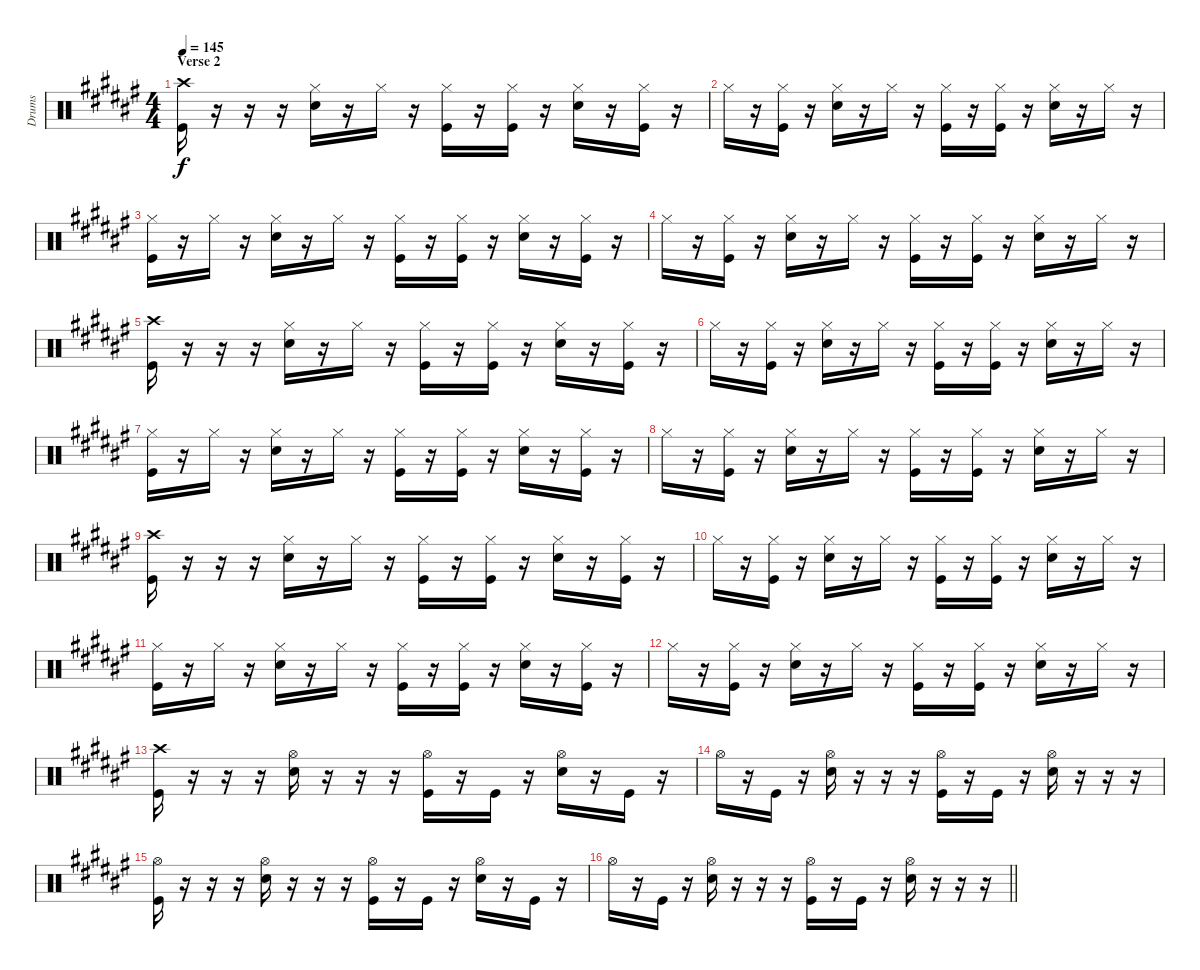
\track ("Drums" "Drums") {instrument percussion}
\staff {score}
\articulation defaults
\ts (4 4)
\section ("" "Verse 2")
\tempo 145
\clef neutral
\ks f#
("Kick (hit)" "Crash high (hit)").16{dy f} r.16 r.16 r.16 ("Hi-Hat (closed)" "Snare (hit) 2").16 r.16 "Hi-Hat (closed)".16 r.16 ("Hi-Hat (closed)" "Kick (hit)").16 r.16 ("Hi-Hat (closed)" "Kick (hit)").16 r.16 ("Hi-Hat (closed)" "Snare (hit) 2").16 r.16 ("Hi-Hat (closed)" "Kick (hit)").16 r.16 |
"Hi-Hat (closed)".16 r.16 ("Hi-Hat (closed)" "Kick (hit)").16 r.16 ("Hi-Hat (closed)" "Snare (hit) 2").16 r.16 "Hi-Hat (closed)".16 r.16 ("Hi-Hat (closed)" "Kick (hit)").16 r.16 ("Hi-Hat (closed)" "Kick (hit)").16 r.16 ("Hi-Hat (closed)" "Snare (hit) 2").16 r.16 "Hi-Hat (closed)".16 r.16 |
("Hi-Hat (closed)" "Kick (hit)").16 r.16 "Hi-Hat (closed)".16 r.16 ("Hi-Hat (closed)" "Snare (hit) 2").16 r.16 "Hi-Hat (closed)".16 r.16 ("Hi-Hat (closed)" "Kick (hit)").16 r.16 ("Hi-Hat (closed)" "Kick (hit)").16 r.16 ("Hi-Hat (closed)" "Snare (hit) 2").16 r.16 ("Hi-Hat (closed)" "Kick (hit)").16 r.16 |
"Hi-Hat (closed)".16 r.16 ("Hi-Hat (closed)" "Kick (hit)").16 r.16 ("Hi-Hat (closed)" "Snare (hit) 2").16 r.16 "Hi-Hat (closed)".16 r.16 ("Hi-Hat (closed)" "Kick (hit)").16 r.16 ("Hi-Hat (closed)" "Kick (hit)").16 r.16 ("Hi-Hat (closed)" "Snare (hit) 2").16 r.16 "Hi-Hat (closed)".16 r.16 |
("Kick (hit)" "Crash high (hit)").16 r.16 r.16 r.16 ("Hi-Hat (closed)" "Snare (hit) 2").16 r.16 "Hi-Hat (closed)".16 r.16 ("Hi-Hat (closed)" "Kick (hit)").16 r.16 ("Hi-Hat (closed)" "Kick (hit)").16 r.16 ("Hi-Hat (closed)" "Snare (hit) 2").16 r.16 ("Hi-Hat (closed)" "Kick (hit)").16 r.16 |
"Hi-Hat (closed)".16 r.16 ("Hi-Hat (closed)" "Kick (hit)").16 r.16 ("Hi-Hat (closed)" "Snare (hit) 2").16 r.16 "Hi-Hat (closed)".16 r.16 ("Hi-Hat (closed)" "Kick (hit)").16 r.16 ("Hi-Hat (closed)" "Kick (hit)").16 r.16 ("Hi-Hat (closed)" "Snare (hit) 2").16 r.16 "Hi-Hat (closed)".16 r.16 |
("Hi-Hat (closed)" "Kick (hit)").16 r.16 "Hi-Hat (closed)".16 r.16 ("Hi-Hat (closed)" "Snare (hit) 2").16 r.16 "Hi-Hat (closed)".16 r.16 ("Hi-Hat (closed)" "Kick (hit)").16 r.16 ("Hi-Hat (closed)" "Kick (hit)").16 r.16 ("Hi-Hat (closed)" "Snare (hit) 2").16 r.16 ("Hi-Hat (closed)" "Kick (hit)").16 r.16 |
"Hi-Hat (closed)".16 r.16 ("Hi-Hat (closed)" "Kick (hit)").16 r.16 ("Hi-Hat (closed)" "Snare (hit) 2").16 r.16 "Hi-Hat (closed)".16 r.16 ("Hi-Hat (closed)" "Kick (hit)").16 r.16 ("Hi-Hat (closed)" "Kick (hit)").16 r.16 ("Hi-Hat (closed)" "Snare (hit) 2").16 r.16 "Hi-Hat (closed)".16 r.16 |
("Kick (hit)" "Crash high (hit)").16 r.16 r.16 r.16 ("Hi-Hat (closed)" "Snare (hit) 2").16 r.16 "Hi-Hat (closed)".16 r.16 ("Hi-Hat (closed)" "Kick (hit)").16 r.16 ("Hi-Hat (closed)" "Kick (hit)").16 r.16 ("Hi-Hat (closed)" "Snare (hit) 2").16 r.16 ("Hi-Hat (closed)" "Kick (hit)").16 r.16 |
"Hi-Hat (closed)".16 r.16 ("Hi-Hat (closed)" "Kick (hit)").16 r.16 ("Hi-Hat (closed)" "Snare (hit) 2").16 r.16 "Hi-Hat (closed)".16 r.16 ("Hi-Hat (closed)" "Kick (hit)").16 r.16 ("Hi-Hat (closed)" "Kick (hit)").16 r.16 ("Hi-Hat (closed)" "Snare (hit) 2").16 r.16 "Hi-Hat (closed)".16 r.16 |
("Hi-Hat (closed)" "Kick (hit)").16 r.16 "Hi-Hat (closed)".16 r.16 ("Hi-Hat (closed)" "Snare (hit) 2").16 r.16 "Hi-Hat (closed)".16 r.16 ("Hi-Hat (closed)" "Kick (hit)").16 r.16 ("Hi-Hat (closed)" "Kick (hit)").16 r.16 ("Hi-Hat (closed)" "Snare (hit) 2").16 r.16 ("Hi-Hat (closed)" "Kick (hit)").16 r.16 |
"Hi-Hat (closed)".16 r.16 ("Hi-Hat (closed)" "Kick (hit)").16 r.16 ("Hi-Hat (closed)" "Snare (hit) 2").16 r.16 "Hi-Hat (closed)".16 r.16 ("Hi-Hat (closed)" "Kick (hit)").16 r.16 ("Hi-Hat (closed)" "Kick (hit)").16 r.16 ("Hi-Hat (closed)" "Snare (hit) 2").16 r.16 "Hi-Hat (closed)".16 r.16 |
("Kick (hit)" "Crash high (hit)").16 r.16 r.16 r.16 ("Hi-Hat (open)" "Snare (hit) 2").16 r.16 r.16 r.16 ("Hi-Hat (open)" "Kick (hit)").16 r.16 "Kick (hit)".16 r.16 ("Hi-Hat (open)" "Snare (hit) 2").16 r.16 "Kick (hit)".16 r.16 |
"Hi-Hat (open)".16 r.16 "Kick (hit)".16 r.16 ("Hi-Hat (open)" "Snare (hit) 2").16 r.16 r.16 r.16 ("Hi-Hat (open)" "Kick (hit)").16 r.16 "Kick (hit)".16 r.16 ("Hi-Hat (open)" "Snare (hit) 2").16 r.16 r.16 r.16 |
("Hi-Hat (open)" "Kick (hit)").16 r.16 r.16 r.16 ("Hi-Hat (open)" "Snare (hit) 2").16 r.16 r.16 r.16 ("Hi-Hat (open)" "Kick (hit)").16 r.16 "Kick (hit)".16 r.16 ("Hi-Hat (open)" "Snare (hit) 2").16 r.16 "Kick (hit)".16 r.16 |
\barLineRight lightlight "Hi-Hat (open)".16
r.16 "Kick (hit)".16 r.16 ("Hi-Hat (open)" "Snare (hit) 2").16 r.16 r.16 r.16 ("Hi-Hat (open)" "Kick (hit)").16 r.16 "Kick (hit)".16 r.16 ("Hi-Hat (open)" "Snare (hit) 2").16 r.16 r.16 r.16
